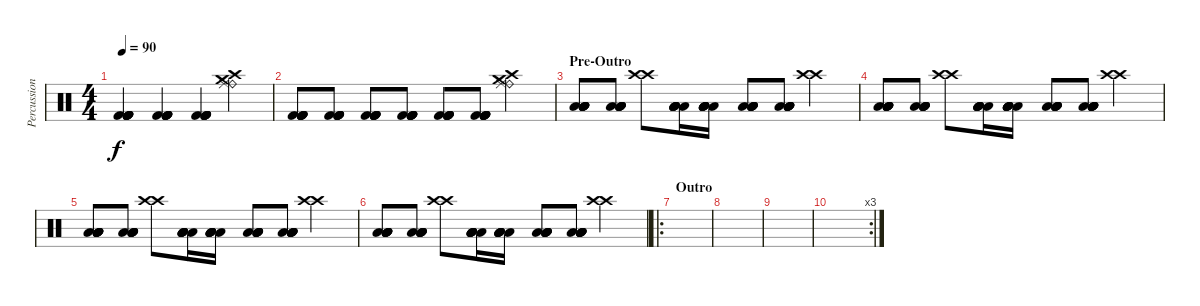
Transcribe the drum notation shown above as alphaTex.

\track ("Percussion" "Percussion") {instrument percussion}
\staff {score}
\articulation defaults
\ts (4 4)
\tempo 90
\clef neutral
\ks c
("Kick (hit) 2" "Kick (hit) 2" "Kick (hit) 2" "Kick (hit) 2" "Kick (hit) 2" "Kick (hit) 2").4{dy f} ("Kick (hit) 2" "Kick (hit) 2" "Kick (hit) 2" "Kick (hit) 2" "Kick (hit) 2" "Kick (hit) 2").4 ("Kick (hit) 2" "Kick (hit) 2" "Kick (hit) 2" "Kick (hit) 2" "Kick (hit) 2" "Kick (hit) 2").4 ("Crash high (hit)" "Ride (bell)" "Ride (middle)" "Crash medium (hit)").4 |
("Kick (hit) 2" "Kick (hit) 2" "Kick (hit) 2" "Kick (hit) 2" "Kick (hit) 2" "Kick (hit) 2").8 ("Kick (hit) 2" "Kick (hit) 2" "Kick (hit) 2" "Kick (hit) 2" "Kick (hit) 2" "Kick (hit) 2").8 ("Kick (hit) 2" "Kick (hit) 2" "Kick (hit) 2" "Kick (hit) 2" "Kick (hit) 2" "Kick (hit) 2").8 ("Kick (hit) 2" "Kick (hit) 2" "Kick (hit) 2" "Kick (hit) 2" "Kick (hit) 2" "Kick (hit) 2").8 ("Kick (hit) 2" "Kick (hit) 2" "Kick (hit) 2" "Kick (hit) 2" "Kick (hit) 2" "Kick (hit) 2").8 ("Kick (hit) 2" "Kick (hit) 2" "Kick (hit) 2" "Kick (hit) 2" "Kick (hit) 2" "Kick (hit) 2").8 ("Crash high (hit)" "Ride (bell)" "Ride (middle)" "Crash medium (hit)").4 |
\section ("" "Pre-Outro")
("Low Tom (hit)" "Low Tom (hit)" "Low Tom (hit)" "Low Tom (hit)" "Low Tom (hit)" "Low Tom (hit)").8 ("Low Tom (hit)" "Low Tom (hit)" "Low Tom (hit)" "Low Tom (hit)" "Low Tom (hit)" "Low Tom (hit)").8 ("Crash high (hit)" "Crash high (hit)").8 ("Low Tom (hit)" "Low Tom (hit)" "Low Tom (hit)" "Low Tom (hit)" "Low Tom (hit)" "Low Tom (hit)").16 ("Low Tom (hit)" "Low Tom (hit)" "Low Tom (hit)" "Low Tom (hit)" "Low Tom (hit)" "Low Tom (hit)").16 ("Low Tom (hit)" "Low Tom (hit)" "Low Tom (hit)" "Low Tom (hit)" "Low Tom (hit)" "Low Tom (hit)").8 ("Low Tom (hit)" "Low Tom (hit)" "Low Tom (hit)" "Low Tom (hit)" "Low Tom (hit)" "Low Tom (hit)").8 ("Crash high (hit)" "Crash high (hit)").4 |
("Low Tom (hit)" "Low Tom (hit)" "Low Tom (hit)" "Low Tom (hit)" "Low Tom (hit)" "Low Tom (hit)").8 ("Low Tom (hit)" "Low Tom (hit)" "Low Tom (hit)" "Low Tom (hit)" "Low Tom (hit)" "Low Tom (hit)").8 ("Crash high (hit)" "Crash high (hit)").8 ("Low Tom (hit)" "Low Tom (hit)" "Low Tom (hit)" "Low Tom (hit)" "Low Tom (hit)" "Low Tom (hit)").16 ("Low Tom (hit)" "Low Tom (hit)" "Low Tom (hit)" "Low Tom (hit)" "Low Tom (hit)" "Low Tom (hit)").16 ("Low Tom (hit)" "Low Tom (hit)" "Low Tom (hit)" "Low Tom (hit)" "Low Tom (hit)" "Low Tom (hit)").8 ("Low Tom (hit)" "Low Tom (hit)" "Low Tom (hit)" "Low Tom (hit)" "Low Tom (hit)" "Low Tom (hit)").8 ("Crash high (hit)" "Crash high (hit)").4 |
("Low Tom (hit)" "Low Tom (hit)" "Low Tom (hit)" "Low Tom (hit)" "Low Tom (hit)" "Low Tom (hit)").8 ("Low Tom (hit)" "Low Tom (hit)" "Low Tom (hit)" "Low Tom (hit)" "Low Tom (hit)" "Low Tom (hit)").8 ("Crash high (hit)" "Crash high (hit)").8 ("Low Tom (hit)" "Low Tom (hit)" "Low Tom (hit)" "Low Tom (hit)" "Low Tom (hit)" "Low Tom (hit)").16 ("Low Tom (hit)" "Low Tom (hit)" "Low Tom (hit)" "Low Tom (hit)" "Low Tom (hit)" "Low Tom (hit)").16 ("Low Tom (hit)" "Low Tom (hit)" "Low Tom (hit)" "Low Tom (hit)" "Low Tom (hit)" "Low Tom (hit)").8 ("Low Tom (hit)" "Low Tom (hit)" "Low Tom (hit)" "Low Tom (hit)" "Low Tom (hit)" "Low Tom (hit)").8 ("Crash high (hit)" "Crash high (hit)").4 |
("Low Tom (hit)" "Low Tom (hit)" "Low Tom (hit)" "Low Tom (hit)" "Low Tom (hit)" "Low Tom (hit)").8 ("Low Tom (hit)" "Low Tom (hit)" "Low Tom (hit)" "Low Tom (hit)" "Low Tom (hit)" "Low Tom (hit)").8 ("Crash high (hit)" "Crash high (hit)").8 ("Low Tom (hit)" "Low Tom (hit)" "Low Tom (hit)" "Low Tom (hit)" "Low Tom (hit)" "Low Tom (hit)").16 ("Low Tom (hit)" "Low Tom (hit)" "Low Tom (hit)" "Low Tom (hit)" "Low Tom (hit)" "Low Tom (hit)").16 ("Low Tom (hit)" "Low Tom (hit)" "Low Tom (hit)" "Low Tom (hit)" "Low Tom (hit)" "Low Tom (hit)").8 ("Low Tom (hit)" "Low Tom (hit)" "Low Tom (hit)" "Low Tom (hit)" "Low Tom (hit)" "Low Tom (hit)").8 ("Crash high (hit)" "Crash high (hit)").4 |
\ro
\section ("" "Outro")
|
|
|
\rc 3
